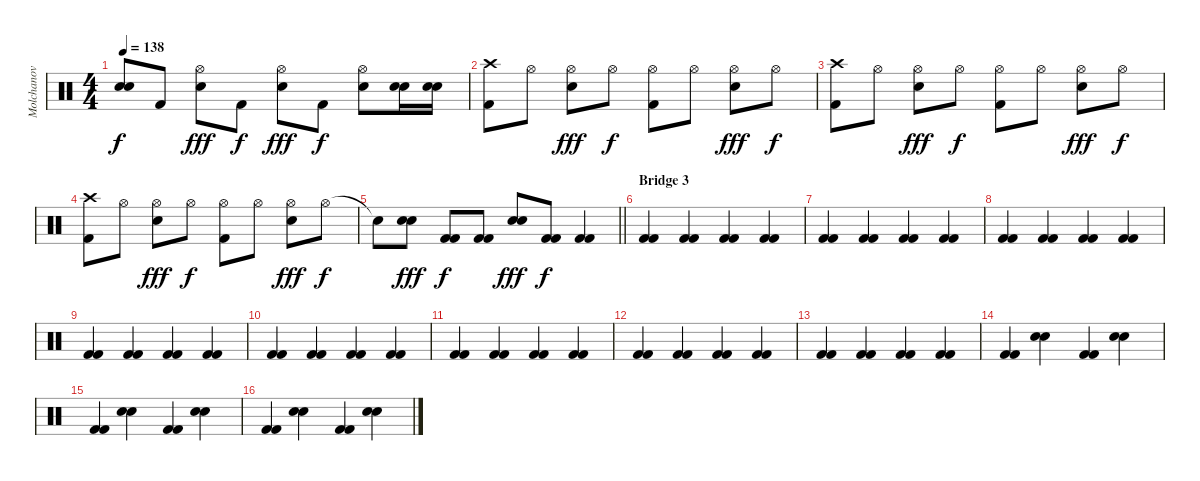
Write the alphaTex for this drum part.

\track ("Molchanov" "Molchanov") {instrument percussion}
\staff {score}
\articulation defaults
\ts (4 4)
\tempo 138
\clef neutral
\ks c
("Snare (hit)"{t} "Snare (hit)"{t}).8{dy f} "Kick (hit) 2".8 ("Hi-Hat (open)" "Electric Snare (hit)").8{dy fff} "Kick (hit) 2".8{dy f} ("Hi-Hat (open)" "Electric Snare (hit)").8{dy fff} "Kick (hit) 2".8{dy f} ("Hi-Hat (open)" "Electric Snare (hit)").8 ("Electric Snare (hit)" "Electric Snare (hit)").16 ("Electric Snare (hit)" "Electric Snare (hit)").16 |
("Crash high (hit)" "Kick (hit) 2").8 "Hi-Hat (open)".8 ("Hi-Hat (open)" "Electric Snare (hit)").8{dy fff} "Hi-Hat (open)".8{dy f} ("Hi-Hat (open)" "Kick (hit) 2").8 "Hi-Hat (open)".8 ("Hi-Hat (open)" "Electric Snare (hit)").8{dy fff} "Hi-Hat (open)".8{dy f} |
("Crash high (hit)" "Kick (hit) 2").8 "Hi-Hat (open)".8 ("Hi-Hat (open)" "Electric Snare (hit)").8{dy fff} "Hi-Hat (open)".8{dy f} ("Hi-Hat (open)" "Kick (hit) 2").8 "Hi-Hat (open)".8 ("Hi-Hat (open)" "Electric Snare (hit)").8{dy fff} "Hi-Hat (open)".8{dy f} |
("Crash high (hit)" "Kick (hit) 2").8 "Hi-Hat (open)".8 ("Hi-Hat (open)" "Electric Snare (hit)").8{dy fff} "Hi-Hat (open)".8{dy f} ("Hi-Hat (open)" "Kick (hit) 2").8 "Hi-Hat (open)".8 ("Hi-Hat (open)" "Electric Snare (hit)").8{dy fff} "Hi-Hat (open)".8{dy f} |
\barLineRight lightlight "Snare (hit)"{t}.8
("Electric Snare (hit)" "Electric Snare (hit)").8{dy fff} ("Kick (hit) 2" "Kick (hit) 2").8{dy f} ("Kick (hit) 2" "Kick (hit) 2").8 ("Electric Snare (hit)" "Electric Snare (hit)").8{dy fff} ("Kick (hit) 2" "Kick (hit) 2").8{dy f} ("Kick (hit) 2" "Kick (hit) 2").4 |
\section ("" "Bridge 3")
("Kick (hit) 2" "Kick (hit) 2").4 ("Kick (hit) 2" "Kick (hit) 2").4 ("Kick (hit) 2" "Kick (hit) 2").4 ("Kick (hit) 2" "Kick (hit) 2").4 |
("Kick (hit) 2" "Kick (hit) 2").4 ("Kick (hit) 2" "Kick (hit) 2").4 ("Kick (hit) 2" "Kick (hit) 2").4 ("Kick (hit) 2" "Kick (hit) 2").4 |
("Kick (hit) 2" "Kick (hit) 2").4 ("Kick (hit) 2" "Kick (hit) 2").4 ("Kick (hit) 2" "Kick (hit) 2").4 ("Kick (hit) 2" "Kick (hit) 2").4 |
("Kick (hit) 2" "Kick (hit) 2").4 ("Kick (hit) 2" "Kick (hit) 2").4 ("Kick (hit) 2" "Kick (hit) 2").4 ("Kick (hit) 2" "Kick (hit) 2").4 |
("Kick (hit) 2" "Kick (hit) 2").4 ("Kick (hit) 2" "Kick (hit) 2").4 ("Kick (hit) 2" "Kick (hit) 2").4 ("Kick (hit) 2" "Kick (hit) 2").4 |
("Kick (hit) 2" "Kick (hit) 2").4 ("Kick (hit) 2" "Kick (hit) 2").4 ("Kick (hit) 2" "Kick (hit) 2").4 ("Kick (hit) 2" "Kick (hit) 2").4 |
("Kick (hit) 2" "Kick (hit) 2").4 ("Kick (hit) 2" "Kick (hit) 2").4 ("Kick (hit) 2" "Kick (hit) 2").4 ("Kick (hit) 2" "Kick (hit) 2").4 |
("Kick (hit) 2" "Kick (hit) 2").4 ("Kick (hit) 2" "Kick (hit) 2").4 ("Kick (hit) 2" "Kick (hit) 2").4 ("Kick (hit) 2" "Kick (hit) 2").4 |
("Kick (hit) 2" "Kick (hit) 2").4 ("Electric Snare (hit)" "Electric Snare (hit)").4 ("Kick (hit) 2" "Kick (hit) 2").4 ("Electric Snare (hit)" "Electric Snare (hit)").4 |
("Kick (hit) 2" "Kick (hit) 2").4 ("Electric Snare (hit)" "Electric Snare (hit)").4 ("Kick (hit) 2" "Kick (hit) 2").4 ("Electric Snare (hit)" "Electric Snare (hit)").4 |
("Kick (hit) 2" "Kick (hit) 2").4 ("Electric Snare (hit)" "Electric Snare (hit)").4 ("Kick (hit) 2" "Kick (hit) 2").4 ("Electric Snare (hit)" "Electric Snare (hit)").4
